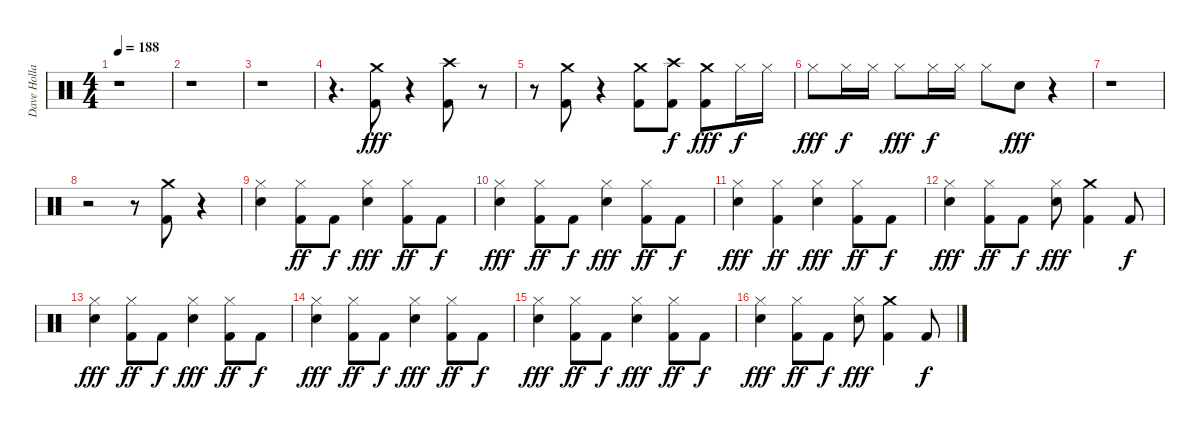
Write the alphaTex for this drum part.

\track ("Dave Holland" "Dave Holla") {instrument percussion}
\staff {score}
\articulation defaults
\ts (4 4)
\tempo 188
\clef neutral
\ks c
r.1{dy fff} |
r.1 |
r.1 |
r.4{d} ("Kick (hit) 2" "Crash medium (hit)").8 r.4 ("Kick (hit) 2" "Crash high (hit)").8 r.8 |
r.8 ("Kick (hit) 2" "Crash medium (hit)").8 r.4 ("Kick (hit) 2" "Crash medium (hit)").8 ("Kick (hit) 2" "Crash high (hit)").8{dy f} ("Kick (hit) 2" "Crash medium (hit)").8{dy fff} "Hi-Hat (closed)".16{dy f} "Hi-Hat (closed)".16 |
"Hi-Hat (closed)".8{dy fff} "Hi-Hat (closed)".16{dy f} "Hi-Hat (closed)".16 "Hi-Hat (closed)".8{dy fff} "Hi-Hat (closed)".16{dy f} "Hi-Hat (closed)".16 "Hi-Hat (closed)".8 "Snare (hit) 2".8{dy fff} r.4 |
r.1 |
r.2 r.8 ("Kick (hit) 2" "Crash medium (hit)").8 r.4 |
("Snare (hit) 2" "Hi-Hat (closed)").4 ("Kick (hit) 2" "Hi-Hat (closed)").8{dy ff} "Kick (hit) 2".8{dy f} ("Snare (hit) 2" "Hi-Hat (closed)").4{dy fff} ("Kick (hit) 2" "Hi-Hat (closed)").8{dy ff} "Kick (hit) 2".8{dy f} |
("Snare (hit) 2" "Hi-Hat (closed)").4{dy fff} ("Kick (hit) 2" "Hi-Hat (closed)").8{dy ff} "Kick (hit) 2".8{dy f} ("Snare (hit) 2" "Hi-Hat (closed)").4{dy fff} ("Kick (hit) 2" "Hi-Hat (closed)").8{dy ff} "Kick (hit) 2".8{dy f} |
("Snare (hit) 2" "Hi-Hat (closed)").4{dy fff} ("Kick (hit) 2" "Hi-Hat (closed)").4{dy ff} ("Snare (hit) 2" "Hi-Hat (closed)").4{dy fff} ("Kick (hit) 2" "Hi-Hat (closed)").8{dy ff} "Kick (hit) 2".8{dy f} |
("Snare (hit) 2" "Hi-Hat (closed)").4{dy fff} ("Kick (hit) 2" "Hi-Hat (closed)").8{dy ff} "Kick (hit) 2".8{dy f} ("Snare (hit) 2" "Hi-Hat (closed)").8{dy fff} ("Kick (hit) 2" "Crash medium (hit)").4 "Kick (hit) 2".8{dy f} |
("Snare (hit) 2" "Hi-Hat (closed)").4{dy fff} ("Kick (hit) 2" "Hi-Hat (closed)").8{dy ff} "Kick (hit) 2".8{dy f} ("Snare (hit) 2" "Hi-Hat (closed)").4{dy fff} ("Kick (hit) 2" "Hi-Hat (closed)").8{dy ff} "Kick (hit) 2".8{dy f} |
("Snare (hit) 2" "Hi-Hat (closed)").4{dy fff} ("Kick (hit) 2" "Hi-Hat (closed)").8{dy ff} "Kick (hit) 2".8{dy f} ("Snare (hit) 2" "Hi-Hat (closed)").4{dy fff} ("Kick (hit) 2" "Hi-Hat (closed)").8{dy ff} "Kick (hit) 2".8{dy f} |
("Snare (hit) 2" "Hi-Hat (closed)").4{dy fff} ("Kick (hit) 2" "Hi-Hat (closed)").8{dy ff} "Kick (hit) 2".8{dy f} ("Snare (hit) 2" "Hi-Hat (closed)").4{dy fff} ("Kick (hit) 2" "Hi-Hat (closed)").8{dy ff} "Kick (hit) 2".8{dy f} |
("Snare (hit) 2" "Hi-Hat (closed)").4{dy fff} ("Kick (hit) 2" "Hi-Hat (closed)").8{dy ff} "Kick (hit) 2".8{dy f} ("Snare (hit) 2" "Hi-Hat (closed)").8{dy fff} ("Kick (hit) 2" "Crash medium (hit)").4 "Kick (hit) 2".8{dy f}
